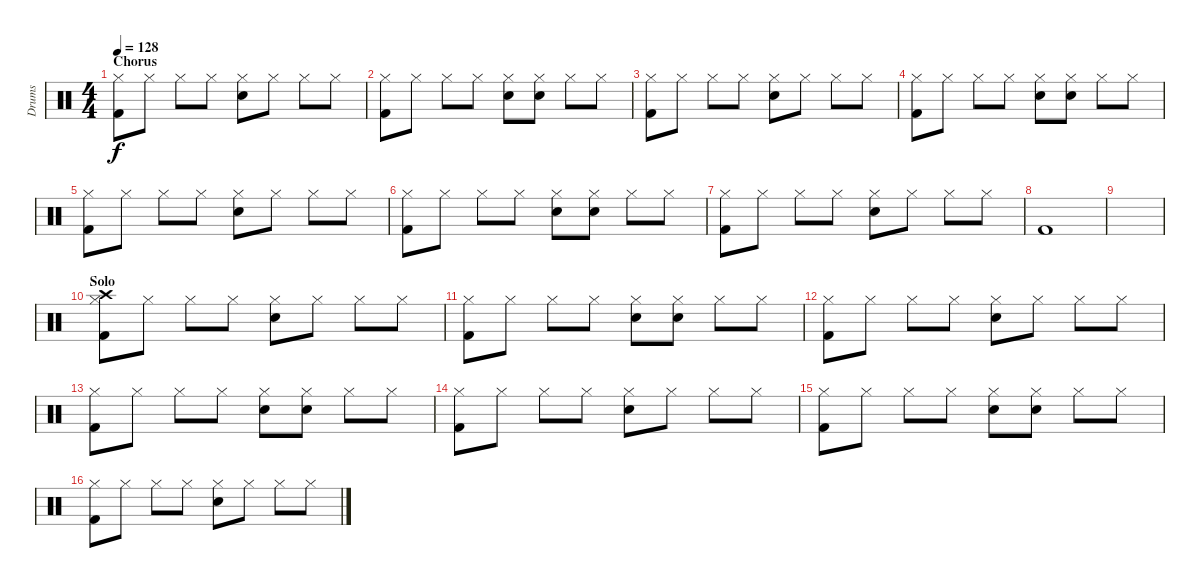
\track ("Drums" "Drums") {instrument percussion}
\staff {score}
\articulation defaults
\ts (4 4)
\section ("" "Chorus")
\tempo 128
\clef neutral
\ks c
("Hi-Hat (closed)" "Kick (hit) 2").8{dy f} "Hi-Hat (closed)".8 "Hi-Hat (closed)".8 "Hi-Hat (closed)".8 ("Hi-Hat (closed)" "Snare (hit) 2").8 "Hi-Hat (closed)".8 "Hi-Hat (closed)".8 "Hi-Hat (closed)".8 |
("Hi-Hat (closed)" "Kick (hit) 2").8 "Hi-Hat (closed)".8 "Hi-Hat (closed)".8 "Hi-Hat (closed)".8 ("Hi-Hat (closed)" "Snare (hit) 2").8 ("Hi-Hat (closed)" "Snare (hit) 2").8 "Hi-Hat (closed)".8 "Hi-Hat (closed)".8 |
("Hi-Hat (closed)" "Kick (hit) 2").8 "Hi-Hat (closed)".8 "Hi-Hat (closed)".8 "Hi-Hat (closed)".8 ("Hi-Hat (closed)" "Snare (hit) 2").8 "Hi-Hat (closed)".8 "Hi-Hat (closed)".8 "Hi-Hat (closed)".8 |
("Hi-Hat (closed)" "Kick (hit) 2").8 "Hi-Hat (closed)".8 "Hi-Hat (closed)".8 "Hi-Hat (closed)".8 ("Hi-Hat (closed)" "Snare (hit) 2").8 ("Hi-Hat (closed)" "Snare (hit) 2").8 "Hi-Hat (closed)".8 "Hi-Hat (closed)".8 |
("Hi-Hat (closed)" "Kick (hit) 2").8 "Hi-Hat (closed)".8 "Hi-Hat (closed)".8 "Hi-Hat (closed)".8 ("Hi-Hat (closed)" "Snare (hit) 2").8 "Hi-Hat (closed)".8 "Hi-Hat (closed)".8 "Hi-Hat (closed)".8 |
("Hi-Hat (closed)" "Kick (hit) 2").8 "Hi-Hat (closed)".8 "Hi-Hat (closed)".8 "Hi-Hat (closed)".8 ("Hi-Hat (closed)" "Snare (hit) 2").8 ("Hi-Hat (closed)" "Snare (hit) 2").8 "Hi-Hat (closed)".8 "Hi-Hat (closed)".8 |
("Hi-Hat (closed)" "Kick (hit) 2").8 "Hi-Hat (closed)".8 "Hi-Hat (closed)".8 "Hi-Hat (closed)".8 ("Hi-Hat (closed)" "Snare (hit) 2").8 "Hi-Hat (closed)".8 "Hi-Hat (closed)".8 "Hi-Hat (closed)".8 |
"Kick (hit) 2".1 |
|
\section ("" "Solo")
("Hi-Hat (closed)" "Crash high (hit)" "Kick (hit) 2").8 "Hi-Hat (closed)".8 "Hi-Hat (closed)".8 "Hi-Hat (closed)".8 ("Hi-Hat (closed)" "Snare (hit) 2").8 "Hi-Hat (closed)".8 "Hi-Hat (closed)".8 "Hi-Hat (closed)".8 |
("Hi-Hat (closed)" "Kick (hit) 2").8 "Hi-Hat (closed)".8 "Hi-Hat (closed)".8 "Hi-Hat (closed)".8 ("Hi-Hat (closed)" "Snare (hit) 2").8 ("Hi-Hat (closed)" "Snare (hit) 2").8 "Hi-Hat (closed)".8 "Hi-Hat (closed)".8 |
("Hi-Hat (closed)" "Kick (hit) 2").8 "Hi-Hat (closed)".8 "Hi-Hat (closed)".8 "Hi-Hat (closed)".8 ("Hi-Hat (closed)" "Snare (hit) 2").8 "Hi-Hat (closed)".8 "Hi-Hat (closed)".8 "Hi-Hat (closed)".8 |
("Hi-Hat (closed)" "Kick (hit) 2").8 "Hi-Hat (closed)".8 "Hi-Hat (closed)".8 "Hi-Hat (closed)".8 ("Hi-Hat (closed)" "Snare (hit) 2").8 ("Hi-Hat (closed)" "Snare (hit) 2").8 "Hi-Hat (closed)".8 "Hi-Hat (closed)".8 |
("Hi-Hat (closed)" "Kick (hit) 2").8 "Hi-Hat (closed)".8 "Hi-Hat (closed)".8 "Hi-Hat (closed)".8 ("Hi-Hat (closed)" "Snare (hit) 2").8 "Hi-Hat (closed)".8 "Hi-Hat (closed)".8 "Hi-Hat (closed)".8 |
("Hi-Hat (closed)" "Kick (hit) 2").8 "Hi-Hat (closed)".8 "Hi-Hat (closed)".8 "Hi-Hat (closed)".8 ("Hi-Hat (closed)" "Snare (hit) 2").8 ("Hi-Hat (closed)" "Snare (hit) 2").8 "Hi-Hat (closed)".8 "Hi-Hat (closed)".8 |
("Hi-Hat (closed)" "Kick (hit) 2").8 "Hi-Hat (closed)".8 "Hi-Hat (closed)".8 "Hi-Hat (closed)".8 ("Hi-Hat (closed)" "Snare (hit) 2").8 "Hi-Hat (closed)".8 "Hi-Hat (closed)".8 "Hi-Hat (closed)".8
